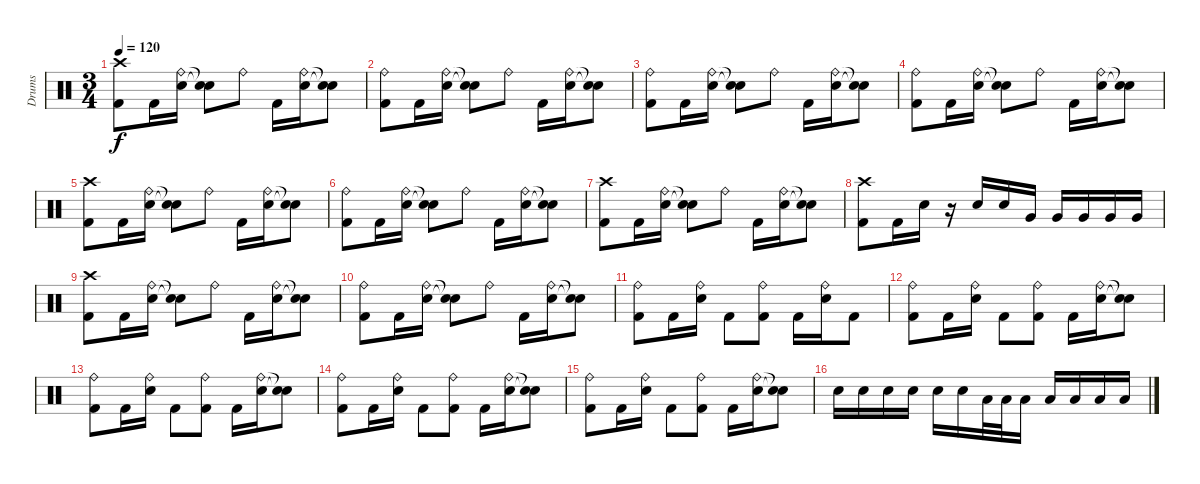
\track ("Drums" "Drums") {instrument percussion}
\staff {score}
\articulation defaults
\ts (3 4)
\tempo 120
\clef neutral
\ks c
("Crash high (hit)" "Kick (hit) 2").8{dy f} "Kick (hit) 2".16 ("Ride (bell)" "Electric Snare (hit)").16 ("Snare (hit)"{t} "Snare (hit)"{t}).8 "Ride (bell)".8 "Kick (hit) 2".16 ("Ride (bell)" "Electric Snare (hit)").16 ("Snare (hit)"{t} "Snare (hit)"{t}).8 |
("Ride (bell)" "Kick (hit) 2").8 "Kick (hit) 2".16 ("Ride (bell)" "Electric Snare (hit)").16 ("Snare (hit)"{t} "Snare (hit)"{t}).8 "Ride (bell)".8 "Kick (hit) 2".16 ("Ride (bell)" "Electric Snare (hit)").16 ("Snare (hit)"{t} "Snare (hit)"{t}).8 |
("Ride (bell)" "Kick (hit) 2").8 "Kick (hit) 2".16 ("Ride (bell)" "Electric Snare (hit)").16 ("Snare (hit)"{t} "Snare (hit)"{t}).8 "Ride (bell)".8 "Kick (hit) 2".16 ("Ride (bell)" "Electric Snare (hit)").16 ("Snare (hit)"{t} "Snare (hit)"{t}).8 |
("Ride (bell)" "Kick (hit) 2").8 "Kick (hit) 2".16 ("Ride (bell)" "Electric Snare (hit)").16 ("Snare (hit)"{t} "Snare (hit)"{t}).8 "Ride (bell)".8 "Kick (hit) 2".16 ("Ride (bell)" "Electric Snare (hit)").16 ("Snare (hit)"{t} "Snare (hit)"{t}).8 |
("Crash high (hit)" "Kick (hit) 2").8 "Kick (hit) 2".16 ("Ride (bell)" "Electric Snare (hit)").16 ("Snare (hit)"{t} "Snare (hit)"{t}).8 "Ride (bell)".8 "Kick (hit) 2".16 ("Ride (bell)" "Electric Snare (hit)").16 ("Snare (hit)"{t} "Snare (hit)"{t}).8 |
("Ride (bell)" "Kick (hit) 2").8 "Kick (hit) 2".16 ("Ride (bell)" "Electric Snare (hit)").16 ("Snare (hit)"{t} "Snare (hit)"{t}).8 "Ride (bell)".8 "Kick (hit) 2".16 ("Ride (bell)" "Electric Snare (hit)").16 ("Snare (hit)"{t} "Snare (hit)"{t}).8 |
("Crash high (hit)" "Kick (hit) 2").8 "Kick (hit) 2".16 ("Ride (bell)" "Electric Snare (hit)").16 ("Snare (hit)"{t} "Snare (hit)"{t}).8 "Ride (bell)".8 "Kick (hit) 2".16 ("Ride (bell)" "Electric Snare (hit)").16 ("Snare (hit)"{t} "Snare (hit)"{t}).8 |
("Crash high (hit)" "Kick (hit) 2").8 "Kick (hit) 2".16 "Electric Snare (hit)".16 r.16 "Electric Snare (hit)".16 "Electric Snare (hit)".16 "Very Low Tom (hit)".16 "Very Low Tom (hit)".16 "Very Low Tom (hit)".16 "Very Low Tom (hit)".16 "Very Low Tom (hit)".16 |
("Crash high (hit)" "Kick (hit) 2").8 "Kick (hit) 2".16 ("Ride (bell)" "Electric Snare (hit)").16 ("Snare (hit)"{t} "Snare (hit)"{t}).8 "Ride (bell)".8 "Kick (hit) 2".16 ("Ride (bell)" "Electric Snare (hit)").16 ("Snare (hit)"{t} "Snare (hit)"{t}).8 |
("Ride (bell)" "Kick (hit) 2").8 "Kick (hit) 2".16 ("Ride (bell)" "Electric Snare (hit)").16 ("Snare (hit)"{t} "Snare (hit)"{t}).8 "Ride (bell)".8 "Kick (hit) 2".16 ("Ride (bell)" "Electric Snare (hit)").16 ("Snare (hit)"{t} "Snare (hit)"{t}).8 |
("Ride (bell)" "Kick (hit) 2").8 "Kick (hit) 2".16 ("Ride (bell)" "Electric Snare (hit)").16 "Kick (hit) 2".8 ("Ride (bell)" "Kick (hit) 2").8 "Kick (hit) 2".16 ("Ride (bell)" "Electric Snare (hit)").16 "Kick (hit) 2".8 |
("Ride (bell)" "Kick (hit) 2").8 "Kick (hit) 2".16 ("Ride (bell)" "Electric Snare (hit)").16 "Kick (hit) 2".8 ("Ride (bell)" "Kick (hit) 2").8 "Kick (hit) 2".16 ("Ride (bell)" "Electric Snare (hit)").16 ("Snare (hit)"{t} "Snare (hit)"{t}).8 |
("Ride (bell)" "Kick (hit) 2").8 "Kick (hit) 2".16 ("Ride (bell)" "Electric Snare (hit)").16 "Kick (hit) 2".8 ("Ride (bell)" "Kick (hit) 2").8 "Kick (hit) 2".16 ("Ride (bell)" "Electric Snare (hit)").16 ("Snare (hit)"{t} "Snare (hit)"{t}).8 |
("Ride (bell)" "Kick (hit) 2").8 "Kick (hit) 2".16 ("Ride (bell)" "Electric Snare (hit)").16 "Kick (hit) 2".8 ("Ride (bell)" "Kick (hit) 2").8 "Kick (hit) 2".16 ("Ride (bell)" "Electric Snare (hit)").16 ("Snare (hit)"{t} "Snare (hit)"{t}).8 |
("Ride (bell)" "Kick (hit) 2").8 "Kick (hit) 2".16 ("Ride (bell)" "Electric Snare (hit)").16 "Kick (hit) 2".8 ("Ride (bell)" "Kick (hit) 2").8 "Kick (hit) 2".16 ("Ride (bell)" "Electric Snare (hit)").16 ("Snare (hit)"{t} "Snare (hit)"{t}).8 |
"Electric Snare (hit)".16 "Electric Snare (hit)".16 "Electric Snare (hit)".16 "Electric Snare (hit)".16 "Electric Snare (hit)".16 "Electric Snare (hit)".16 "Low Tom (hit)".32 "Low Tom (hit)".32 "Low Tom (hit)".16 "Low Tom (hit)".16 "Low Tom (hit)".16 "Low Tom (hit)".16 "Low Tom (hit)".16
